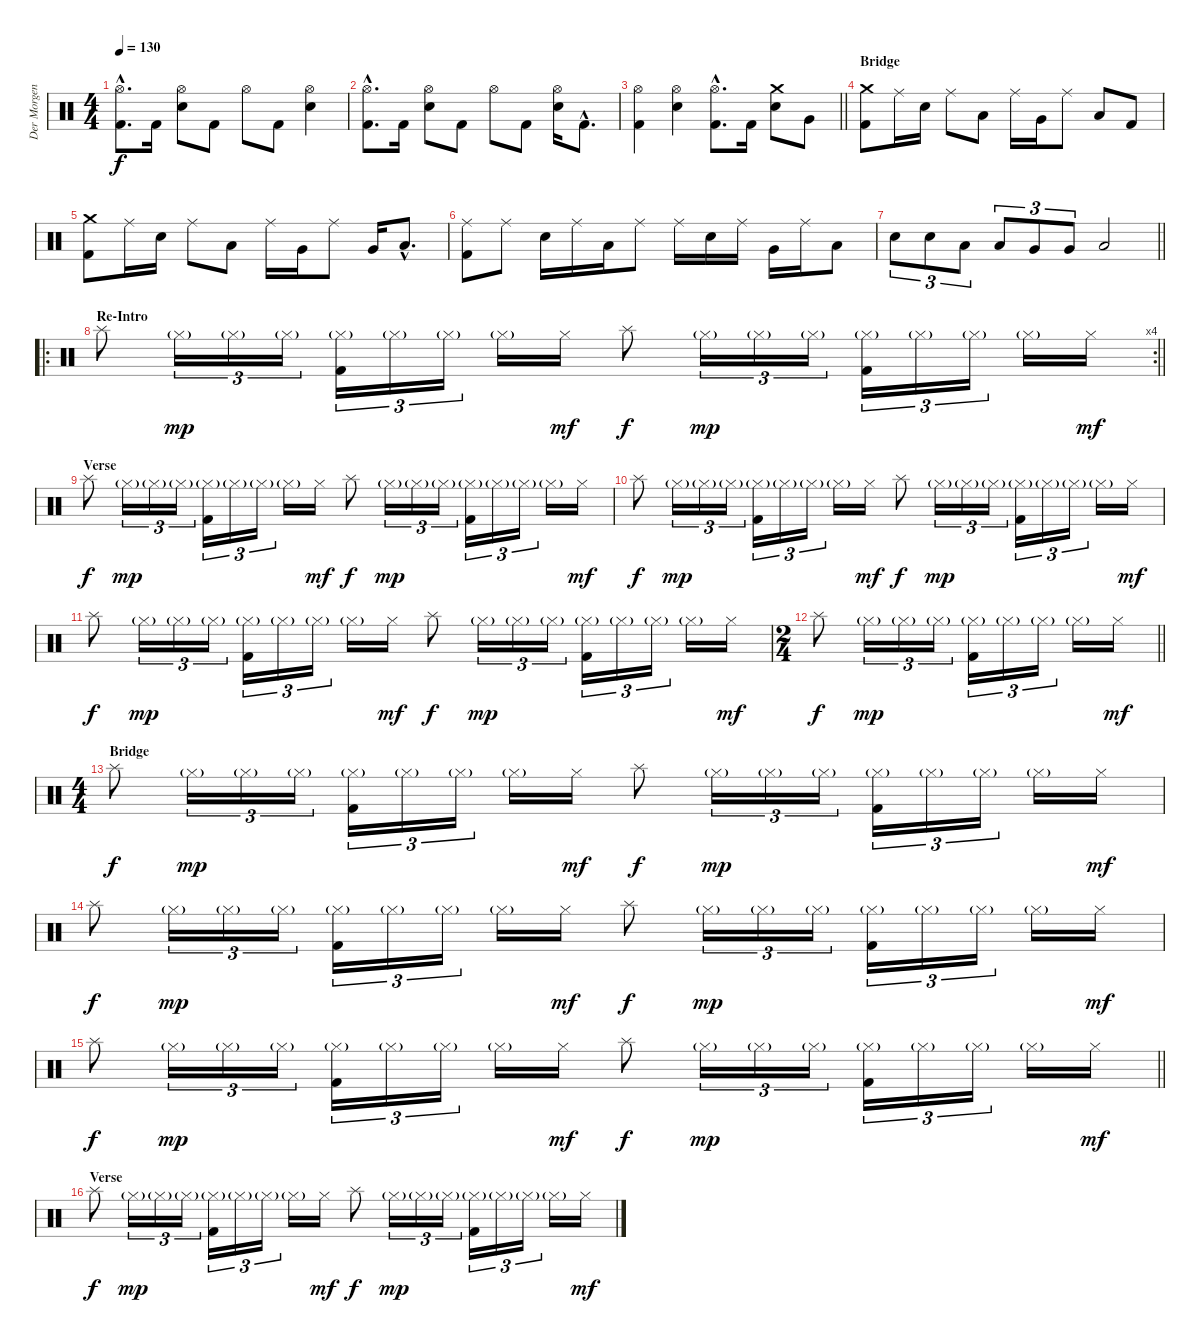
\track ("Der Morgenstern" "Der Morgen") {instrument percussion}
\staff {score}
\articulation defaults
\ts (4 4)
\tempo 130
\clef neutral
\ks c
("Hi-Hat (open)"{hac} "Kick (hit) 2"{hac}).8{d dy f} "Kick (hit) 2".16 ("Hi-Hat (open)" "Electric Snare (hit)").8 "Kick (hit) 2".8 "Hi-Hat (open)".8 "Kick (hit) 2".8 ("Hi-Hat (open)" "Electric Snare (hit)").4 |
("Hi-Hat (open)"{hac} "Kick (hit) 2"{hac}).8{d} "Kick (hit) 2".16 ("Hi-Hat (open)" "Electric Snare (hit)").8 "Kick (hit) 2".8 "Hi-Hat (open)".8 "Kick (hit) 2".8 ("Hi-Hat (open)" "Electric Snare (hit)").16 "Kick (hit) 2"{hac}.8{d} |
\barLineRight lightlight
("Hi-Hat (open)" "Kick (hit) 2").4 ("Hi-Hat (open)" "Electric Snare (hit)").4 ("Hi-Hat (open)"{hac} "Kick (hit) 2"{hac}).8{d} "Kick (hit) 2".16 ("Crash medium (hit)" "Electric Snare (hit)").8 "Very Low Tom (hit)".8 |
\section ("" "Bridge")
("Crash medium (hit)" "Kick (hit) 2").8 "Ride (middle)".16 "Electric Snare (hit)".16 "Ride (middle)".8 "Low Tom (hit)".8 "Ride (middle)".16 "Very Low Tom (hit)".16 "Ride (middle)".8 "Low Floor Tom (hit)".8 "Kick (hit) 2".8 |
("Crash medium (hit)" "Kick (hit) 2").8 "Ride (middle)".16 "Electric Snare (hit)".16 "Ride (middle)".8 "Low Tom (hit)".8 "Ride (middle)".16 "Very Low Tom (hit)".16 "Ride (middle)".8 "Very Low Tom (hit)".16 "Low Floor Tom (hit)"{hac}.8{d} |
("Ride (middle)" "Kick (hit) 2").8 "Ride (middle)".8 "Electric Snare (hit)".16 "Ride (middle)".16 "Low Tom (hit)".16 "Ride (middle)".8 "Ride (middle)".16 "Electric Snare (hit)".16 "Ride (middle)".16 "Very Low Tom (hit)".16 "Ride (middle)".16 "Low Floor Tom (hit)".8 |
\barLineRight lightlight "Electric Snare (hit)".8{tu (3 2)} "Electric Snare (hit)".8{tu (3 2)} "Low Tom (hit)".8{tu (3 2)} "Low Tom (hit)".8{tu (3 2)} "Very Low Tom (hit)".8{tu (3 2)} "Very Low Tom (hit)".8{tu (3 2)} "Low Floor Tom (hit)".2
|
\ro
\rc 4
\section ("" "Re-Intro")
\barLineRight lightlight "Splash (hit)".8 "Hi-Hat (closed)"{g}.16{tu (3 2) dy mp} "Hi-Hat (closed)"{g}.16{tu (3 2)} "Hi-Hat (closed)"{g}.16{tu (3 2)}
("Hi-Hat (closed)"{g} "Kick (hit) 2").16{tu (3 2)} "Hi-Hat (closed)"{g}.16{tu (3 2)} "Hi-Hat (closed)"{g}.16{tu (3 2)} "Hi-Hat (closed)"{g}.16 "Hi-Hat (closed)".16{dy mf} "Splash (hit)".8{dy f} "Hi-Hat (closed)"{g}.16{tu (3 2) dy mp} "Hi-Hat (closed)"{g}.16{tu (3 2)} "Hi-Hat (closed)"{g}.16{tu (3 2)} ("Hi-Hat (closed)"{g} "Kick (hit) 2").16{tu (3 2)} "Hi-Hat (closed)"{g}.16{tu (3 2)} "Hi-Hat (closed)"{g}.16{tu (3 2)} "Hi-Hat (closed)"{g}.16 "Hi-Hat (closed)".16{dy mf} |
\section ("" "Verse")
"Splash (hit)".8{dy f} "Hi-Hat (closed)"{g}.16{tu (3 2) dy mp} "Hi-Hat (closed)"{g}.16{tu (3 2)} "Hi-Hat (closed)"{g}.16{tu (3 2)} ("Hi-Hat (closed)"{g} "Kick (hit) 2").16{tu (3 2)} "Hi-Hat (closed)"{g}.16{tu (3 2)} "Hi-Hat (closed)"{g}.16{tu (3 2)} "Hi-Hat (closed)"{g}.16 "Hi-Hat (closed)".16{dy mf} "Splash (hit)".8{dy f} "Hi-Hat (closed)"{g}.16{tu (3 2) dy mp} "Hi-Hat (closed)"{g}.16{tu (3 2)} "Hi-Hat (closed)"{g}.16{tu (3 2)} ("Hi-Hat (closed)"{g} "Kick (hit) 2").16{tu (3 2)} "Hi-Hat (closed)"{g}.16{tu (3 2)} "Hi-Hat (closed)"{g}.16{tu (3 2)} "Hi-Hat (closed)"{g}.16 "Hi-Hat (closed)".16{dy mf} |
"Splash (hit)".8{dy f} "Hi-Hat (closed)"{g}.16{tu (3 2) dy mp} "Hi-Hat (closed)"{g}.16{tu (3 2)} "Hi-Hat (closed)"{g}.16{tu (3 2)} ("Hi-Hat (closed)"{g} "Kick (hit) 2").16{tu (3 2)} "Hi-Hat (closed)"{g}.16{tu (3 2)} "Hi-Hat (closed)"{g}.16{tu (3 2)} "Hi-Hat (closed)"{g}.16 "Hi-Hat (closed)".16{dy mf} "Splash (hit)".8{dy f} "Hi-Hat (closed)"{g}.16{tu (3 2) dy mp} "Hi-Hat (closed)"{g}.16{tu (3 2)} "Hi-Hat (closed)"{g}.16{tu (3 2)} ("Hi-Hat (closed)"{g} "Kick (hit) 2").16{tu (3 2)} "Hi-Hat (closed)"{g}.16{tu (3 2)} "Hi-Hat (closed)"{g}.16{tu (3 2)} "Hi-Hat (closed)"{g}.16 "Hi-Hat (closed)".16{dy mf} |
"Splash (hit)".8{dy f} "Hi-Hat (closed)"{g}.16{tu (3 2) dy mp} "Hi-Hat (closed)"{g}.16{tu (3 2)} "Hi-Hat (closed)"{g}.16{tu (3 2)} ("Hi-Hat (closed)"{g} "Kick (hit) 2").16{tu (3 2)} "Hi-Hat (closed)"{g}.16{tu (3 2)} "Hi-Hat (closed)"{g}.16{tu (3 2)} "Hi-Hat (closed)"{g}.16 "Hi-Hat (closed)".16{dy mf} "Splash (hit)".8{dy f} "Hi-Hat (closed)"{g}.16{tu (3 2) dy mp} "Hi-Hat (closed)"{g}.16{tu (3 2)} "Hi-Hat (closed)"{g}.16{tu (3 2)} ("Hi-Hat (closed)"{g} "Kick (hit) 2").16{tu (3 2)} "Hi-Hat (closed)"{g}.16{tu (3 2)} "Hi-Hat (closed)"{g}.16{tu (3 2)} "Hi-Hat (closed)"{g}.16 "Hi-Hat (closed)".16{dy mf} |
\ts (2 4)
\barLineRight lightlight "Splash (hit)".8{dy f} "Hi-Hat (closed)"{g}.16{tu (3 2) dy mp} "Hi-Hat (closed)"{g}.16{tu (3 2)} "Hi-Hat (closed)"{g}.16{tu (3 2)}
("Hi-Hat (closed)"{g} "Kick (hit) 2").16{tu (3 2)} "Hi-Hat (closed)"{g}.16{tu (3 2)} "Hi-Hat (closed)"{g}.16{tu (3 2)} "Hi-Hat (closed)"{g}.16 "Hi-Hat (closed)".16{dy mf} |
\ts (4 4)
\section ("" "Bridge")
"Splash (hit)".8{dy f} "Hi-Hat (closed)"{g}.16{tu (3 2) dy mp} "Hi-Hat (closed)"{g}.16{tu (3 2)} "Hi-Hat (closed)"{g}.16{tu (3 2)} ("Hi-Hat (closed)"{g} "Kick (hit) 2").16{tu (3 2)} "Hi-Hat (closed)"{g}.16{tu (3 2)} "Hi-Hat (closed)"{g}.16{tu (3 2)} "Hi-Hat (closed)"{g}.16 "Hi-Hat (closed)".16{dy mf} "Splash (hit)".8{dy f} "Hi-Hat (closed)"{g}.16{tu (3 2) dy mp} "Hi-Hat (closed)"{g}.16{tu (3 2)} "Hi-Hat (closed)"{g}.16{tu (3 2)} ("Hi-Hat (closed)"{g} "Kick (hit) 2").16{tu (3 2)} "Hi-Hat (closed)"{g}.16{tu (3 2)} "Hi-Hat (closed)"{g}.16{tu (3 2)} "Hi-Hat (closed)"{g}.16 "Hi-Hat (closed)".16{dy mf} |
"Splash (hit)".8{dy f} "Hi-Hat (closed)"{g}.16{tu (3 2) dy mp} "Hi-Hat (closed)"{g}.16{tu (3 2)} "Hi-Hat (closed)"{g}.16{tu (3 2)} ("Hi-Hat (closed)"{g} "Kick (hit) 2").16{tu (3 2)} "Hi-Hat (closed)"{g}.16{tu (3 2)} "Hi-Hat (closed)"{g}.16{tu (3 2)} "Hi-Hat (closed)"{g}.16 "Hi-Hat (closed)".16{dy mf} "Splash (hit)".8{dy f} "Hi-Hat (closed)"{g}.16{tu (3 2) dy mp} "Hi-Hat (closed)"{g}.16{tu (3 2)} "Hi-Hat (closed)"{g}.16{tu (3 2)} ("Hi-Hat (closed)"{g} "Kick (hit) 2").16{tu (3 2)} "Hi-Hat (closed)"{g}.16{tu (3 2)} "Hi-Hat (closed)"{g}.16{tu (3 2)} "Hi-Hat (closed)"{g}.16 "Hi-Hat (closed)".16{dy mf} |
\barLineRight lightlight "Splash (hit)".8{dy f} "Hi-Hat (closed)"{g}.16{tu (3 2) dy mp} "Hi-Hat (closed)"{g}.16{tu (3 2)} "Hi-Hat (closed)"{g}.16{tu (3 2)}
("Hi-Hat (closed)"{g} "Kick (hit) 2").16{tu (3 2)} "Hi-Hat (closed)"{g}.16{tu (3 2)} "Hi-Hat (closed)"{g}.16{tu (3 2)} "Hi-Hat (closed)"{g}.16 "Hi-Hat (closed)".16{dy mf} "Splash (hit)".8{dy f} "Hi-Hat (closed)"{g}.16{tu (3 2) dy mp} "Hi-Hat (closed)"{g}.16{tu (3 2)} "Hi-Hat (closed)"{g}.16{tu (3 2)} ("Hi-Hat (closed)"{g} "Kick (hit) 2").16{tu (3 2)} "Hi-Hat (closed)"{g}.16{tu (3 2)} "Hi-Hat (closed)"{g}.16{tu (3 2)} "Hi-Hat (closed)"{g}.16 "Hi-Hat (closed)".16{dy mf} |
\section ("" "Verse")
"Splash (hit)".8{dy f} "Hi-Hat (closed)"{g}.16{tu (3 2) dy mp} "Hi-Hat (closed)"{g}.16{tu (3 2)} "Hi-Hat (closed)"{g}.16{tu (3 2)} ("Hi-Hat (closed)"{g} "Kick (hit) 2").16{tu (3 2)} "Hi-Hat (closed)"{g}.16{tu (3 2)} "Hi-Hat (closed)"{g}.16{tu (3 2)} "Hi-Hat (closed)"{g}.16 "Hi-Hat (closed)".16{dy mf} "Splash (hit)".8{dy f} "Hi-Hat (closed)"{g}.16{tu (3 2) dy mp} "Hi-Hat (closed)"{g}.16{tu (3 2)} "Hi-Hat (closed)"{g}.16{tu (3 2)} ("Hi-Hat (closed)"{g} "Kick (hit) 2").16{tu (3 2)} "Hi-Hat (closed)"{g}.16{tu (3 2)} "Hi-Hat (closed)"{g}.16{tu (3 2)} "Hi-Hat (closed)"{g}.16 "Hi-Hat (closed)".16{dy mf}
